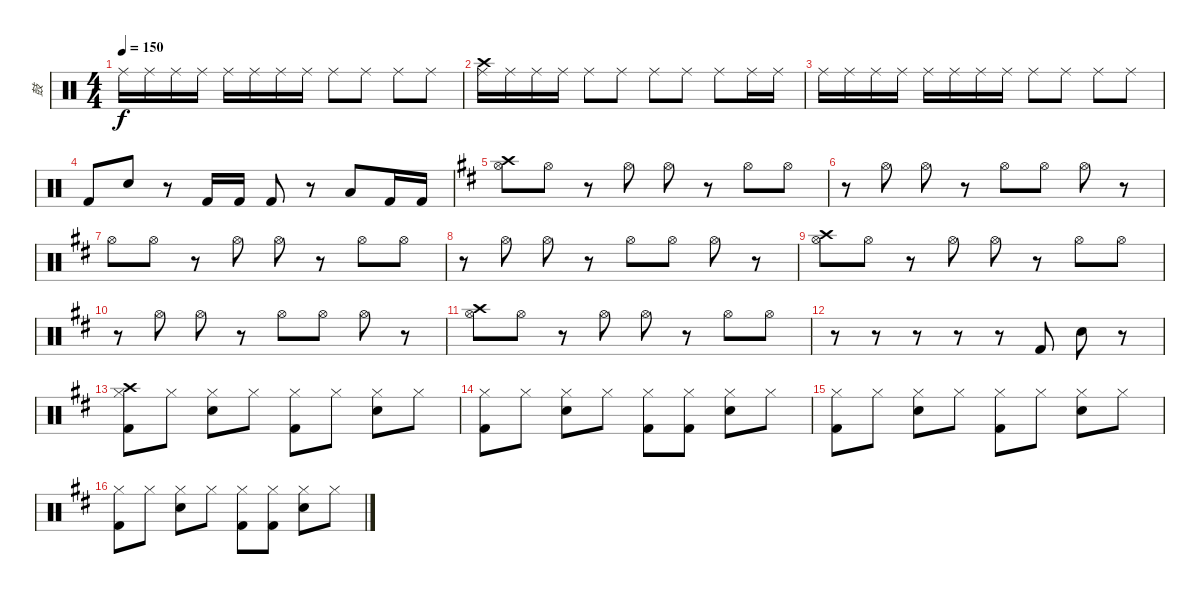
\track ("鼓" "鼓") {instrument percussion}
\staff {score}
\articulation defaults
\ts (4 4)
\tempo 150
\clef neutral
\ks c "Ride (middle)".16{dy f} "Ride (middle)".16 "Ride (middle)".16 "Ride (middle)".16 "Ride (middle)".16 "Ride (middle)".16 "Ride (middle)".16 "Ride (middle)".16 "Ride (middle)".8 "Ride (middle)".8 "Ride (middle)".8 "Ride (middle)".8
|
("Crash high (hit)" "Ride (middle)").16 "Ride (middle)".16 "Ride (middle)".16 "Ride (middle)".16 "Ride (middle)".8 "Ride (middle)".8 "Ride (middle)".8 "Ride (middle)".8 "Ride (middle)".8 "Ride (middle)".16 "Ride (middle)".16 |
"Ride (middle)".16 "Ride (middle)".16 "Ride (middle)".16 "Ride (middle)".16 "Ride (middle)".16 "Ride (middle)".16 "Ride (middle)".16 "Ride (middle)".16 "Ride (middle)".8 "Ride (middle)".8 "Ride (middle)".8 "Ride (middle)".8 |
"Kick (hit) 2".8 "Snare (hit) 2".8 r.8 "Kick (hit) 2".16 "Kick (hit) 2".16 "Kick (hit) 2".8 r.8 "Low Floor Tom (hit)".8 "Kick (hit) 2".16 "Kick (hit) 2".16 |
\ks d
("Crash high (hit)" "Hi-Hat (open)").8 "Hi-Hat (open)".8 r.8 "Hi-Hat (open)".8 "Hi-Hat (open)".8 r.8 "Hi-Hat (open)".8 "Hi-Hat (open)".8 |
r.8 "Hi-Hat (open)".8 "Hi-Hat (open)".8 r.8 "Hi-Hat (open)".8 "Hi-Hat (open)".8 "Hi-Hat (open)".8 r.8 |
"Hi-Hat (open)".8 "Hi-Hat (open)".8 r.8 "Hi-Hat (open)".8 "Hi-Hat (open)".8 r.8 "Hi-Hat (open)".8 "Hi-Hat (open)".8 |
r.8 "Hi-Hat (open)".8 "Hi-Hat (open)".8 r.8 "Hi-Hat (open)".8 "Hi-Hat (open)".8 "Hi-Hat (open)".8 r.8 |
("Crash high (hit)" "Hi-Hat (open)").8 "Hi-Hat (open)".8 r.8 "Hi-Hat (open)".8 "Hi-Hat (open)".8 r.8 "Hi-Hat (open)".8 "Hi-Hat (open)".8 |
r.8 "Hi-Hat (open)".8 "Hi-Hat (open)".8 r.8 "Hi-Hat (open)".8 "Hi-Hat (open)".8 "Hi-Hat (open)".8 r.8 |
("Crash high (hit)" "Hi-Hat (open)").8 "Hi-Hat (open)".8 r.8 "Hi-Hat (open)".8 "Hi-Hat (open)".8 r.8 "Hi-Hat (open)".8 "Hi-Hat (open)".8 |
r.8 r.8 r.8 r.8 r.8 "Kick (hit) 2".8 "Snare (hit) 2".8 r.8 |
("Crash high (hit)" "Hi-Hat (closed)" "Kick (hit) 2").8 "Hi-Hat (closed)".8 ("Hi-Hat (closed)" "Snare (hit) 2").8 "Hi-Hat (closed)".8 ("Hi-Hat (closed)" "Kick (hit) 2").8 "Hi-Hat (closed)".8 ("Hi-Hat (closed)" "Snare (hit) 2").8 "Hi-Hat (closed)".8 |
("Hi-Hat (closed)" "Kick (hit) 2").8 "Hi-Hat (closed)".8 ("Hi-Hat (closed)" "Snare (hit) 2").8 "Hi-Hat (closed)".8 ("Hi-Hat (closed)" "Kick (hit) 2").8 ("Hi-Hat (closed)" "Kick (hit) 2").8 ("Hi-Hat (closed)" "Snare (hit) 2").8 "Hi-Hat (closed)".8 |
("Hi-Hat (closed)" "Kick (hit) 2").8 "Hi-Hat (closed)".8 ("Hi-Hat (closed)" "Snare (hit) 2").8 "Hi-Hat (closed)".8 ("Hi-Hat (closed)" "Kick (hit) 2").8 "Hi-Hat (closed)".8 ("Hi-Hat (closed)" "Snare (hit) 2").8 "Hi-Hat (closed)".8 |
("Hi-Hat (closed)" "Kick (hit) 2").8 "Hi-Hat (closed)".8 ("Hi-Hat (closed)" "Snare (hit) 2").8 "Hi-Hat (closed)".8 ("Hi-Hat (closed)" "Kick (hit) 2").8 ("Hi-Hat (closed)" "Kick (hit) 2").8 ("Hi-Hat (closed)" "Snare (hit) 2").8 "Hi-Hat (closed)".8
